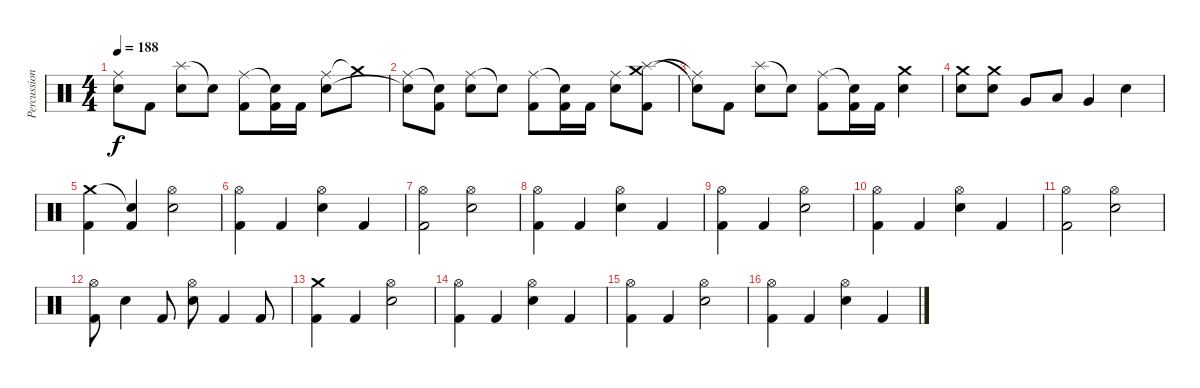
\track ("Percussion" "Percussion") {instrument percussion}
\staff {score}
\articulation defaults
\ts (4 4)
\tempo 188
\clef neutral
\ks c
("Ride (middle)"{t} "Snare (hit)"{t}).8{dy f} "Kick (hit) 2".8 ("Splash (hit)" "Electric Snare (hit)").8 "Snare (hit)"{t}.8 ("Ride (middle)" "Kick (hit) 2").8 ("Snare (hit)"{t} "Kick (hit) 2").16 "Kick (hit) 2".16 ("Ride (middle)" "Electric Snare (hit)").8 "Crash medium (hit)"{t}.8 |
("Ride (middle)" "Snare (hit)"{t}).8 ("Snare (hit)"{t} "Kick (hit) 2").8 ("Ride (middle)" "Electric Snare (hit)").8 "Snare (hit)"{t}.8 ("Ride (middle)" "Kick (hit) 2").8 ("Snare (hit)"{t} "Kick (hit) 2").16 "Kick (hit) 2".16 ("Ride (middle)" "Electric Snare (hit)").8 ("Crash medium (hit)" "Splash (hit)" "Kick (hit) 2").8 |
("Ride (middle)"{t} "Snare (hit)"{t}).8 "Kick (hit) 2".8 ("Splash (hit)" "Electric Snare (hit)").8 "Snare (hit)"{t}.8 ("Ride (middle)" "Kick (hit) 2").8 ("Snare (hit)"{t} "Kick (hit) 2").16 "Kick (hit) 2".16 ("Crash medium (hit)" "Electric Snare (hit)").4 |
("Crash medium (hit)" "Electric Snare (hit)").8 ("Crash medium (hit)" "Electric Snare (hit)").8 "Very Low Tom (hit)".8 "Low Floor Tom (hit)".8 "Very Low Tom (hit)".4 "Electric Snare (hit)".4 |
("Crash medium (hit)" "Kick (hit) 2").4 ("Snare (hit)"{t} "Kick (hit) 2").4 ("Hi-Hat (open)" "Electric Snare (hit)").2 |
("Hi-Hat (open)" "Kick (hit) 2").4 "Kick (hit) 2".4 ("Hi-Hat (open)" "Electric Snare (hit)").4 "Kick (hit) 2".4 |
("Hi-Hat (open)" "Kick (hit) 2").2 ("Hi-Hat (open)" "Electric Snare (hit)").2 |
("Hi-Hat (open)" "Kick (hit) 2").4 "Kick (hit) 2".4 ("Hi-Hat (open)" "Electric Snare (hit)").4 "Kick (hit) 2".4 |
("Hi-Hat (open)" "Kick (hit) 2").4 "Kick (hit) 2".4 ("Hi-Hat (open)" "Electric Snare (hit)").2 |
("Hi-Hat (open)" "Kick (hit) 2").4 "Kick (hit) 2".4 ("Hi-Hat (open)" "Electric Snare (hit)").4 "Kick (hit) 2".4 |
("Hi-Hat (open)" "Kick (hit) 2").2 ("Hi-Hat (open)" "Electric Snare (hit)").2 |
("Hi-Hat (open)" "Kick (hit) 2").8 "Electric Snare (hit)".4 "Kick (hit) 2".8 ("Hi-Hat (open)" "Electric Snare (hit)").8 "Kick (hit) 2".4 "Kick (hit) 2".8 |
("Crash medium (hit)" "Kick (hit) 2").4 "Kick (hit) 2".4 ("Hi-Hat (open)" "Electric Snare (hit)").2 |
("Hi-Hat (open)" "Kick (hit) 2").4 "Kick (hit) 2".4 ("Hi-Hat (open)" "Electric Snare (hit)").4 "Kick (hit) 2".4 |
("Hi-Hat (open)" "Kick (hit) 2").4 "Kick (hit) 2".4 ("Hi-Hat (open)" "Electric Snare (hit)").2 |
("Hi-Hat (open)" "Kick (hit) 2").4 "Kick (hit) 2".4 ("Hi-Hat (open)" "Electric Snare (hit)").4 "Kick (hit) 2".4
